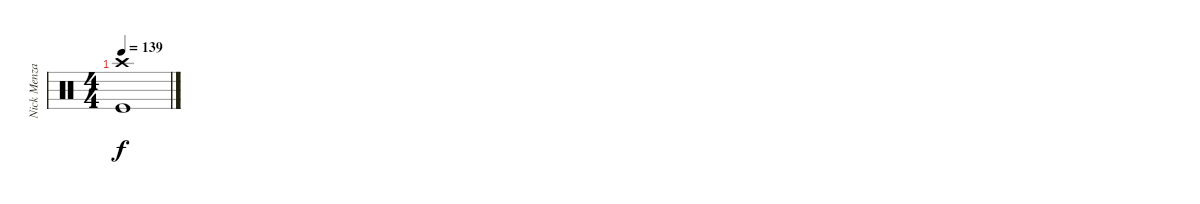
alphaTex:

\track ("Nick Menza" "Nick Menza") {instrument percussion}
\staff {score}
\articulation defaults
\ts (4 4)
\tempo 139
\clef neutral
\ks c
("Crash high (hit)" "Kick (hit)").1{dy f}
